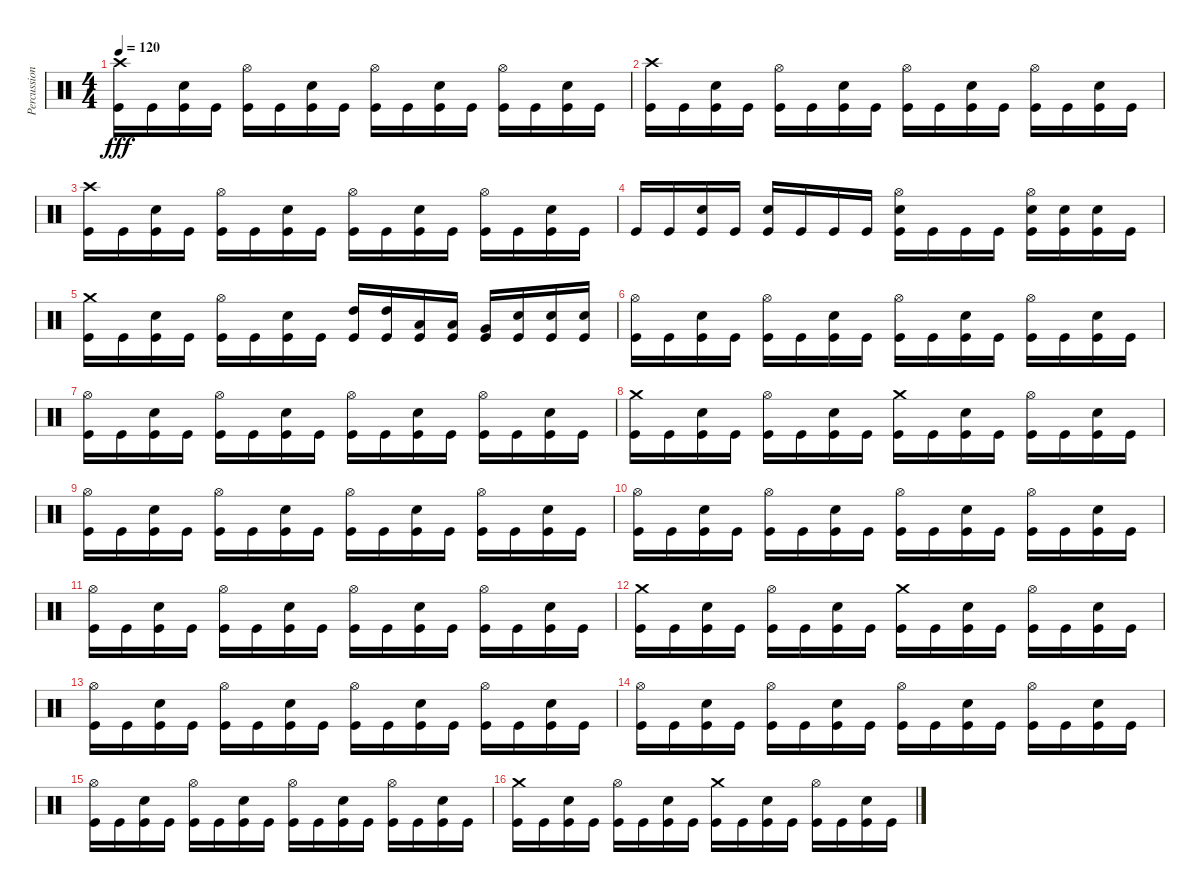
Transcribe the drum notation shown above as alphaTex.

\track ("Percussion" "Percussion") {instrument percussion}
\staff {score}
\articulation defaults
\ts (4 4)
\tempo 120
\clef neutral
\ks c
("Crash high (hit)" "Kick (hit)").16{dy fff} "Kick (hit)".16 ("Electric Snare (hit)" "Kick (hit)").16 "Kick (hit)".16 ("Hi-Hat (open)" "Kick (hit)").16 "Kick (hit)".16 ("Electric Snare (hit)" "Kick (hit)").16 "Kick (hit)".16 ("Hi-Hat (open)" "Kick (hit)").16 "Kick (hit)".16 ("Electric Snare (hit)" "Kick (hit)").16 "Kick (hit)".16 ("Hi-Hat (open)" "Kick (hit)").16 "Kick (hit)".16 ("Electric Snare (hit)" "Kick (hit)").16 "Kick (hit)".16 |
("Crash high (hit)" "Kick (hit)").16 "Kick (hit)".16 ("Electric Snare (hit)" "Kick (hit)").16 "Kick (hit)".16 ("Hi-Hat (open)" "Kick (hit)").16 "Kick (hit)".16 ("Electric Snare (hit)" "Kick (hit)").16 "Kick (hit)".16 ("Hi-Hat (open)" "Kick (hit)").16 "Kick (hit)".16 ("Electric Snare (hit)" "Kick (hit)").16 "Kick (hit)".16 ("Hi-Hat (open)" "Kick (hit)").16 "Kick (hit)".16 ("Electric Snare (hit)" "Kick (hit)").16 "Kick (hit)".16 |
("Crash high (hit)" "Kick (hit)").16 "Kick (hit)".16 ("Electric Snare (hit)" "Kick (hit)").16 "Kick (hit)".16 ("Hi-Hat (open)" "Kick (hit)").16 "Kick (hit)".16 ("Electric Snare (hit)" "Kick (hit)").16 "Kick (hit)".16 ("Hi-Hat (open)" "Kick (hit)").16 "Kick (hit)".16 ("Electric Snare (hit)" "Kick (hit)").16 "Kick (hit)".16 ("Hi-Hat (open)" "Kick (hit)").16 "Kick (hit)".16 ("Electric Snare (hit)" "Kick (hit)").16 "Kick (hit)".16 |
"Kick (hit)".16 "Kick (hit)".16 ("Electric Snare (hit)" "Kick (hit)").16 "Kick (hit)".16 ("Electric Snare (hit)" "Kick (hit)").16 "Kick (hit)".16 "Kick (hit)".16 "Kick (hit)".16 ("Hi-Hat (open)" "Electric Snare (hit)" "Kick (hit)").16 "Kick (hit)".16 "Kick (hit)".16 "Kick (hit)".16 ("Hi-Hat (open)" "Electric Snare (hit)" "Kick (hit)").16 ("Electric Snare (hit)" "Kick (hit)").16 ("Electric Snare (hit)" "Kick (hit)").16 "Kick (hit)".16 |
("Crash medium (hit)" "Kick (hit)").16 "Kick (hit)".16 ("Electric Snare (hit)" "Kick (hit)").16 "Kick (hit)".16 ("Hi-Hat (open)" "Kick (hit)").16 "Kick (hit)".16 ("Electric Snare (hit)" "Kick (hit)").16 "Kick (hit)".16 ("High Tom (hit)" "Kick (hit)").16 ("High Tom (hit)" "Kick (hit)").16 ("Low Tom (hit)" "Kick (hit)").16 ("Low Tom (hit)" "Kick (hit)").16 ("Very Low Tom (hit)" "Kick (hit)").16 ("Electric Snare (hit)" "Kick (hit)").16 ("Electric Snare (hit)" "Kick (hit)").16 ("Electric Snare (hit)" "Kick (hit)").16 |
("Hi-Hat (open)" "Kick (hit)").16 "Kick (hit)".16 ("Electric Snare (hit)" "Kick (hit)").16 "Kick (hit)".16 ("Hi-Hat (open)" "Kick (hit)").16 "Kick (hit)".16 ("Electric Snare (hit)" "Kick (hit)").16 "Kick (hit)".16 ("Hi-Hat (open)" "Kick (hit)").16 "Kick (hit)".16 ("Electric Snare (hit)" "Kick (hit)").16 "Kick (hit)".16 ("Hi-Hat (open)" "Kick (hit)").16 "Kick (hit)".16 ("Electric Snare (hit)" "Kick (hit)").16 "Kick (hit)".16 |
("Hi-Hat (open)" "Kick (hit)").16 "Kick (hit)".16 ("Electric Snare (hit)" "Kick (hit)").16 "Kick (hit)".16 ("Hi-Hat (open)" "Kick (hit)").16 "Kick (hit)".16 ("Electric Snare (hit)" "Kick (hit)").16 "Kick (hit)".16 ("Hi-Hat (open)" "Kick (hit)").16 "Kick (hit)".16 ("Electric Snare (hit)" "Kick (hit)").16 "Kick (hit)".16 ("Hi-Hat (open)" "Kick (hit)").16 "Kick (hit)".16 ("Electric Snare (hit)" "Kick (hit)").16 "Kick (hit)".16 |
("Crash medium (hit)" "Kick (hit)").16 "Kick (hit)".16 ("Electric Snare (hit)" "Kick (hit)").16 "Kick (hit)".16 ("Hi-Hat (open)" "Kick (hit)").16 "Kick (hit)".16 ("Electric Snare (hit)" "Kick (hit)").16 "Kick (hit)".16 ("Crash medium (hit)" "Kick (hit)").16 "Kick (hit)".16 ("Electric Snare (hit)" "Kick (hit)").16 "Kick (hit)".16 ("Hi-Hat (open)" "Kick (hit)").16 "Kick (hit)".16 ("Electric Snare (hit)" "Kick (hit)").16 "Kick (hit)".16 |
("Hi-Hat (open)" "Kick (hit)").16 "Kick (hit)".16 ("Electric Snare (hit)" "Kick (hit)").16 "Kick (hit)".16 ("Hi-Hat (open)" "Kick (hit)").16 "Kick (hit)".16 ("Electric Snare (hit)" "Kick (hit)").16 "Kick (hit)".16 ("Hi-Hat (open)" "Kick (hit)").16 "Kick (hit)".16 ("Electric Snare (hit)" "Kick (hit)").16 "Kick (hit)".16 ("Hi-Hat (open)" "Kick (hit)").16 "Kick (hit)".16 ("Electric Snare (hit)" "Kick (hit)").16 "Kick (hit)".16 |
("Hi-Hat (open)" "Kick (hit)").16 "Kick (hit)".16 ("Electric Snare (hit)" "Kick (hit)").16 "Kick (hit)".16 ("Hi-Hat (open)" "Kick (hit)").16 "Kick (hit)".16 ("Electric Snare (hit)" "Kick (hit)").16 "Kick (hit)".16 ("Hi-Hat (open)" "Kick (hit)").16 "Kick (hit)".16 ("Electric Snare (hit)" "Kick (hit)").16 "Kick (hit)".16 ("Hi-Hat (open)" "Kick (hit)").16 "Kick (hit)".16 ("Electric Snare (hit)" "Kick (hit)").16 "Kick (hit)".16 |
("Hi-Hat (open)" "Kick (hit)").16 "Kick (hit)".16 ("Electric Snare (hit)" "Kick (hit)").16 "Kick (hit)".16 ("Hi-Hat (open)" "Kick (hit)").16 "Kick (hit)".16 ("Electric Snare (hit)" "Kick (hit)").16 "Kick (hit)".16 ("Hi-Hat (open)" "Kick (hit)").16 "Kick (hit)".16 ("Electric Snare (hit)" "Kick (hit)").16 "Kick (hit)".16 ("Hi-Hat (open)" "Kick (hit)").16 "Kick (hit)".16 ("Electric Snare (hit)" "Kick (hit)").16 "Kick (hit)".16 |
("Crash medium (hit)" "Kick (hit)").16 "Kick (hit)".16 ("Electric Snare (hit)" "Kick (hit)").16 "Kick (hit)".16 ("Hi-Hat (open)" "Kick (hit)").16 "Kick (hit)".16 ("Electric Snare (hit)" "Kick (hit)").16 "Kick (hit)".16 ("Crash medium (hit)" "Kick (hit)").16 "Kick (hit)".16 ("Electric Snare (hit)" "Kick (hit)").16 "Kick (hit)".16 ("Hi-Hat (open)" "Kick (hit)").16 "Kick (hit)".16 ("Electric Snare (hit)" "Kick (hit)").16 "Kick (hit)".16 |
("Hi-Hat (open)" "Kick (hit)").16 "Kick (hit)".16 ("Electric Snare (hit)" "Kick (hit)").16 "Kick (hit)".16 ("Hi-Hat (open)" "Kick (hit)").16 "Kick (hit)".16 ("Electric Snare (hit)" "Kick (hit)").16 "Kick (hit)".16 ("Hi-Hat (open)" "Kick (hit)").16 "Kick (hit)".16 ("Electric Snare (hit)" "Kick (hit)").16 "Kick (hit)".16 ("Hi-Hat (open)" "Kick (hit)").16 "Kick (hit)".16 ("Electric Snare (hit)" "Kick (hit)").16 "Kick (hit)".16 |
("Hi-Hat (open)" "Kick (hit)").16 "Kick (hit)".16 ("Electric Snare (hit)" "Kick (hit)").16 "Kick (hit)".16 ("Hi-Hat (open)" "Kick (hit)").16 "Kick (hit)".16 ("Electric Snare (hit)" "Kick (hit)").16 "Kick (hit)".16 ("Hi-Hat (open)" "Kick (hit)").16 "Kick (hit)".16 ("Electric Snare (hit)" "Kick (hit)").16 "Kick (hit)".16 ("Hi-Hat (open)" "Kick (hit)").16 "Kick (hit)".16 ("Electric Snare (hit)" "Kick (hit)").16 "Kick (hit)".16 |
("Hi-Hat (open)" "Kick (hit)").16 "Kick (hit)".16 ("Electric Snare (hit)" "Kick (hit)").16 "Kick (hit)".16 ("Hi-Hat (open)" "Kick (hit)").16 "Kick (hit)".16 ("Electric Snare (hit)" "Kick (hit)").16 "Kick (hit)".16 ("Hi-Hat (open)" "Kick (hit)").16 "Kick (hit)".16 ("Electric Snare (hit)" "Kick (hit)").16 "Kick (hit)".16 ("Hi-Hat (open)" "Kick (hit)").16 "Kick (hit)".16 ("Electric Snare (hit)" "Kick (hit)").16 "Kick (hit)".16 |
("Crash medium (hit)" "Kick (hit)").16 "Kick (hit)".16 ("Electric Snare (hit)" "Kick (hit)").16 "Kick (hit)".16 ("Hi-Hat (open)" "Kick (hit)").16 "Kick (hit)".16 ("Electric Snare (hit)" "Kick (hit)").16 "Kick (hit)".16 ("Crash medium (hit)" "Kick (hit)").16 "Kick (hit)".16 ("Electric Snare (hit)" "Kick (hit)").16 "Kick (hit)".16 ("Hi-Hat (open)" "Kick (hit)").16 "Kick (hit)".16 ("Electric Snare (hit)" "Kick (hit)").16 "Kick (hit)".16
